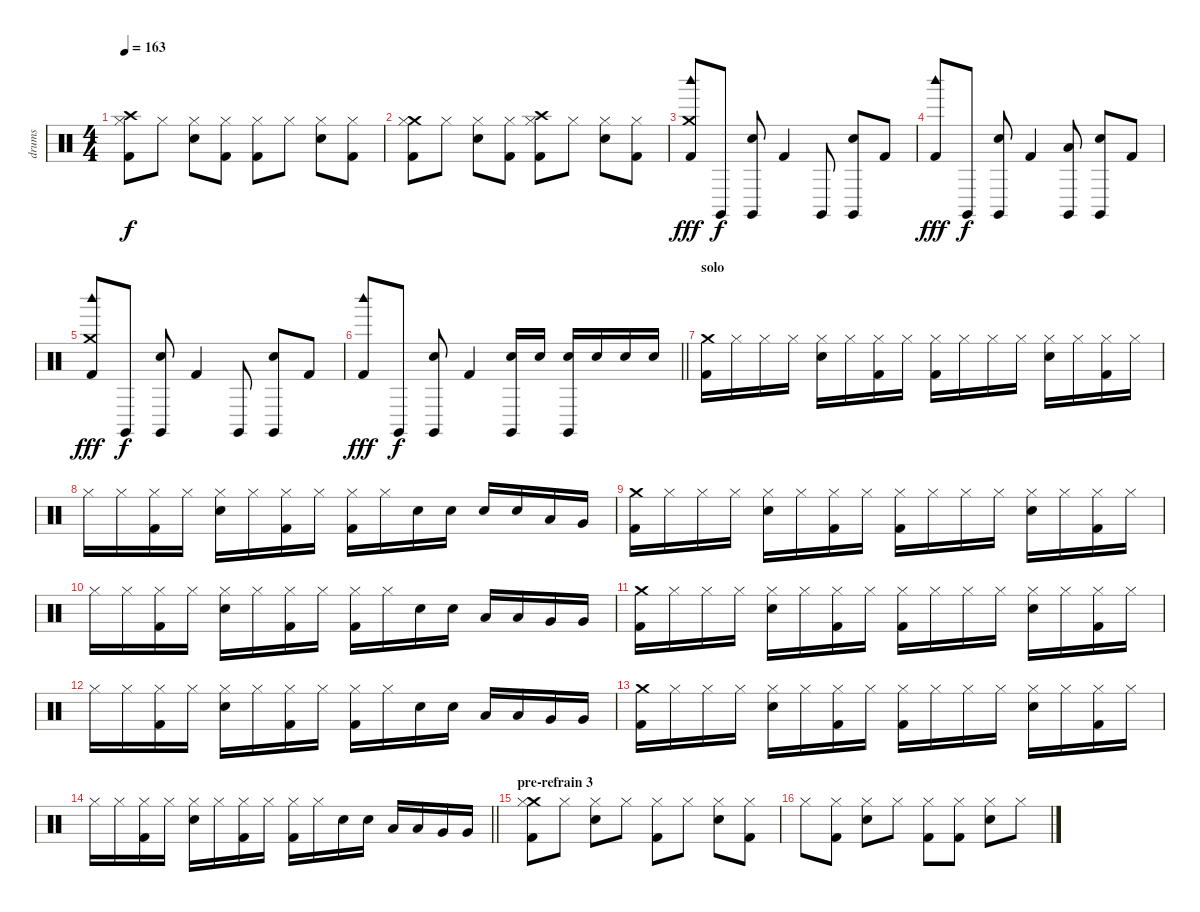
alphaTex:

\track ("drums" "drums") {instrument percussion}
\staff {score}
\articulation defaults
\ts (4 4)
\tempo 163
\clef neutral
\ks c
("Crash high (hit)" "Hi-Hat (closed)" "Kick (hit) 2").8{dy f} "Hi-Hat (closed)".8 ("Hi-Hat (closed)" "Electric Snare (hit)").8 ("Hi-Hat (closed)" "Kick (hit) 2").8 ("Hi-Hat (closed)" "Kick (hit) 2").8 "Hi-Hat (closed)".8 ("Hi-Hat (closed)" "Electric Snare (hit)").8 ("Hi-Hat (closed)" "Kick (hit) 2").8 |
("Crash medium (hit)" "Hi-Hat (closed)" "Kick (hit) 2").8 "Hi-Hat (closed)".8 ("Hi-Hat (closed)" "Electric Snare (hit)").8 ("Hi-Hat (closed)" "Kick (hit) 2").8 ("Crash high (hit)" "Hi-Hat (closed)" "Kick (hit) 2").8 "Hi-Hat (closed)".8 ("Hi-Hat (closed)" "Electric Snare (hit)").8 ("Hi-Hat (closed)" "Kick (hit) 2").8 |
("Crash medium (hit)" "Woodblock high (hit)" "Kick (hit) 2").8{dy fff} "Claves (hit)".8{dy f} ("Claves (hit)" "Electric Snare (hit)").8 "Kick (hit) 2".4 "Claves (hit)".8 ("Claves (hit)" "Electric Snare (hit)").8 "Kick (hit) 2".8 |
("Woodblock high (hit)" "Kick (hit) 2").8{dy fff} "Claves (hit)".8{dy f} ("Claves (hit)" "Electric Snare (hit)").8 "Kick (hit) 2".4 ("Claves (hit)" "Low Tom (hit)").8 ("Claves (hit)" "Electric Snare (hit)").8 "Kick (hit) 2".8 |
("Crash medium (hit)" "Woodblock high (hit)" "Kick (hit) 2").8{dy fff} "Claves (hit)".8{dy f} ("Claves (hit)" "Electric Snare (hit)").8 "Kick (hit) 2".4 "Claves (hit)".8 ("Claves (hit)" "Electric Snare (hit)").8 "Kick (hit) 2".8 |
\barLineRight lightlight
("Woodblock high (hit)" "Kick (hit) 2").8{dy fff} "Claves (hit)".8{dy f} ("Claves (hit)" "Electric Snare (hit)").8 "Kick (hit) 2".4 ("Claves (hit)" "Electric Snare (hit)").16 "Electric Snare (hit)".16 ("Claves (hit)" "Electric Snare (hit)").16 "Electric Snare (hit)".16 "Electric Snare (hit)".16 "Electric Snare (hit)".16 |
\section ("" "solo")
("Crash medium (hit)" "Kick (hit) 2").16 "Hi-Hat (closed)".16 "Hi-Hat (closed)".16 "Hi-Hat (closed)".16 ("Hi-Hat (closed)" "Electric Snare (hit)").16 "Hi-Hat (closed)".16 ("Hi-Hat (closed)" "Kick (hit) 2").16 "Hi-Hat (closed)".16 ("Hi-Hat (closed)" "Kick (hit) 2").16 "Hi-Hat (closed)".16 "Hi-Hat (closed)".16 "Hi-Hat (closed)".16 ("Hi-Hat (closed)" "Electric Snare (hit)").16 "Hi-Hat (closed)".16 ("Hi-Hat (closed)" "Kick (hit) 2").16 "Hi-Hat (closed)".16 |
"Hi-Hat (closed)".16 "Hi-Hat (closed)".16 ("Hi-Hat (closed)" "Kick (hit) 2").16 "Hi-Hat (closed)".16 ("Hi-Hat (closed)" "Electric Snare (hit)").16 "Hi-Hat (closed)".16 ("Hi-Hat (closed)" "Kick (hit) 2").16 "Hi-Hat (closed)".16 ("Hi-Hat (closed)" "Kick (hit) 2").16 "Hi-Hat (closed)".16 "Electric Snare (hit)".16 "Electric Snare (hit)".16 "Electric Snare (hit)".16 "Electric Snare (hit)".16 "Low Tom (hit)".16 "Very Low Tom (hit)".16 |
("Crash medium (hit)" "Kick (hit) 2").16 "Hi-Hat (closed)".16 "Hi-Hat (closed)".16 "Hi-Hat (closed)".16 ("Hi-Hat (closed)" "Electric Snare (hit)").16 "Hi-Hat (closed)".16 ("Hi-Hat (closed)" "Kick (hit) 2").16 "Hi-Hat (closed)".16 ("Hi-Hat (closed)" "Kick (hit) 2").16 "Hi-Hat (closed)".16 "Hi-Hat (closed)".16 "Hi-Hat (closed)".16 ("Hi-Hat (closed)" "Electric Snare (hit)").16 "Hi-Hat (closed)".16 ("Hi-Hat (closed)" "Kick (hit) 2").16 "Hi-Hat (closed)".16 |
"Hi-Hat (closed)".16 "Hi-Hat (closed)".16 ("Hi-Hat (closed)" "Kick (hit) 2").16 "Hi-Hat (closed)".16 ("Hi-Hat (closed)" "Electric Snare (hit)").16 "Hi-Hat (closed)".16 ("Hi-Hat (closed)" "Kick (hit) 2").16 "Hi-Hat (closed)".16 ("Hi-Hat (closed)" "Kick (hit) 2").16 "Hi-Hat (closed)".16 "Electric Snare (hit)".16 "Electric Snare (hit)".16 "Low Tom (hit)".16 "Low Tom (hit)".16 "Very Low Tom (hit)".16 "Very Low Tom (hit)".16 |
("Crash medium (hit)" "Kick (hit) 2").16 "Hi-Hat (closed)".16 "Hi-Hat (closed)".16 "Hi-Hat (closed)".16 ("Hi-Hat (closed)" "Electric Snare (hit)").16 "Hi-Hat (closed)".16 ("Hi-Hat (closed)" "Kick (hit) 2").16 "Hi-Hat (closed)".16 ("Hi-Hat (closed)" "Kick (hit) 2").16 "Hi-Hat (closed)".16 "Hi-Hat (closed)".16 "Hi-Hat (closed)".16 ("Hi-Hat (closed)" "Electric Snare (hit)").16 "Hi-Hat (closed)".16 ("Hi-Hat (closed)" "Kick (hit) 2").16 "Hi-Hat (closed)".16 |
"Hi-Hat (closed)".16 "Hi-Hat (closed)".16 ("Hi-Hat (closed)" "Kick (hit) 2").16 "Hi-Hat (closed)".16 ("Hi-Hat (closed)" "Electric Snare (hit)").16 "Hi-Hat (closed)".16 ("Hi-Hat (closed)" "Kick (hit) 2").16 "Hi-Hat (closed)".16 ("Hi-Hat (closed)" "Kick (hit) 2").16 "Hi-Hat (closed)".16 "Electric Snare (hit)".16 "Electric Snare (hit)".16 "Low Tom (hit)".16 "Low Tom (hit)".16 "Very Low Tom (hit)".16 "Very Low Tom (hit)".16 |
("Crash medium (hit)" "Kick (hit) 2").16 "Hi-Hat (closed)".16 "Hi-Hat (closed)".16 "Hi-Hat (closed)".16 ("Hi-Hat (closed)" "Electric Snare (hit)").16 "Hi-Hat (closed)".16 ("Hi-Hat (closed)" "Kick (hit) 2").16 "Hi-Hat (closed)".16 ("Hi-Hat (closed)" "Kick (hit) 2").16 "Hi-Hat (closed)".16 "Hi-Hat (closed)".16 "Hi-Hat (closed)".16 ("Hi-Hat (closed)" "Electric Snare (hit)").16 "Hi-Hat (closed)".16 ("Hi-Hat (closed)" "Kick (hit) 2").16 "Hi-Hat (closed)".16 |
\barLineRight lightlight "Hi-Hat (closed)".16 "Hi-Hat (closed)".16
("Hi-Hat (closed)" "Kick (hit) 2").16 "Hi-Hat (closed)".16 ("Hi-Hat (closed)" "Electric Snare (hit)").16 "Hi-Hat (closed)".16 ("Hi-Hat (closed)" "Kick (hit) 2").16 "Hi-Hat (closed)".16 ("Hi-Hat (closed)" "Kick (hit) 2").16 "Hi-Hat (closed)".16 "Electric Snare (hit)".16 "Electric Snare (hit)".16 "Low Tom (hit)".16 "Low Tom (hit)".16 "Very Low Tom (hit)".16 "Very Low Tom (hit)".16 |
\section ("" "pre-refrain 3")
("Crash medium (hit)" "Hi-Hat (closed)" "Kick (hit) 2").8 "Hi-Hat (closed)".8 ("Hi-Hat (closed)" "Electric Snare (hit)").8 "Hi-Hat (closed)".8 ("Hi-Hat (closed)" "Kick (hit) 2").8 "Hi-Hat (closed)".8 ("Hi-Hat (closed)" "Electric Snare (hit)").8 ("Hi-Hat (closed)" "Kick (hit) 2").8 |
"Hi-Hat (closed)".8 ("Hi-Hat (closed)" "Kick (hit) 2").8 ("Hi-Hat (closed)" "Electric Snare (hit)").8 "Hi-Hat (closed)".8 ("Hi-Hat (closed)" "Kick (hit) 2").8 ("Hi-Hat (closed)" "Kick (hit) 2").8 ("Hi-Hat (closed)" "Electric Snare (hit)").8 "Hi-Hat (closed)".8
